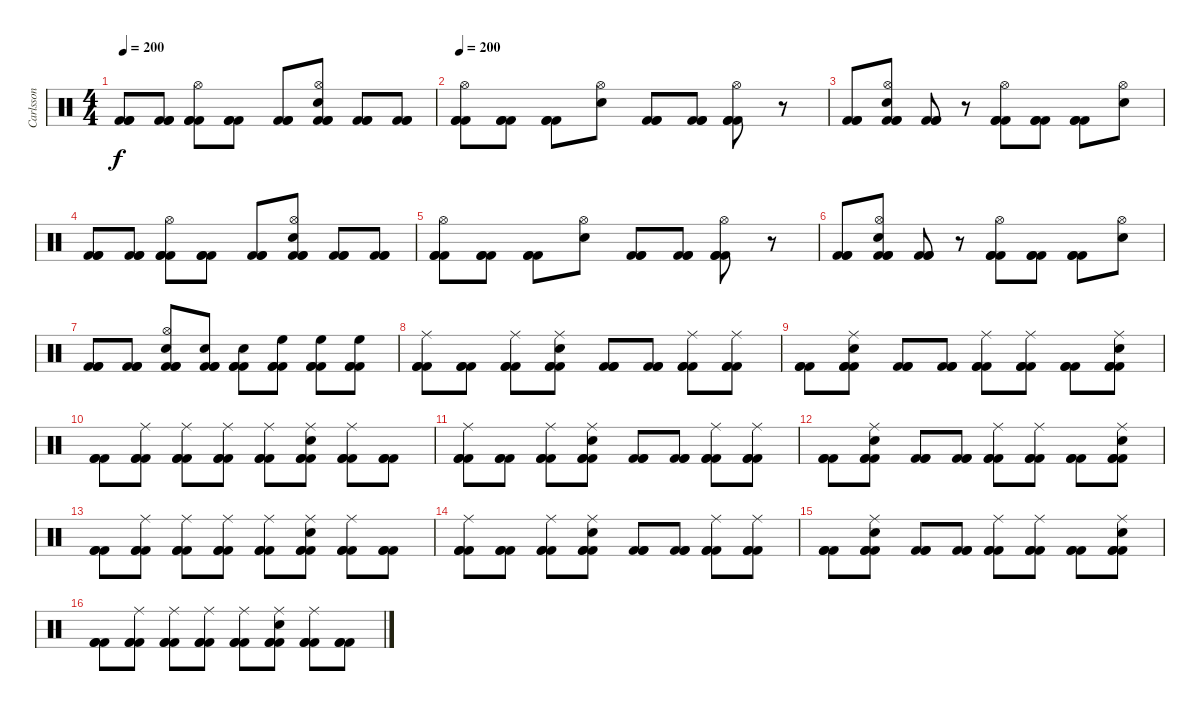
\track ("Carlsson" "Carlsson") {instrument percussion}
\staff {score}
\articulation defaults
\ts (4 4)
\tempo 200
\clef neutral
\ks c
("Kick (hit) 2" "Kick (hit) 2" "Kick (hit) 2").8{dy f} ("Kick (hit) 2" "Kick (hit) 2" "Kick (hit) 2").8 ("Hi-Hat (open)" "Kick (hit) 2" "Kick (hit) 2" "Kick (hit) 2").8 ("Kick (hit) 2" "Kick (hit) 2" "Kick (hit) 2").8 ("Kick (hit) 2" "Kick (hit) 2" "Kick (hit) 2").8 ("Hi-Hat (open)" "Snare (hit) 2" "Kick (hit) 2" "Kick (hit) 2" "Kick (hit) 2").8 ("Kick (hit) 2" "Kick (hit) 2" "Kick (hit) 2").8 ("Kick (hit) 2" "Kick (hit) 2" "Kick (hit) 2").8 |
\tempo 200
("Hi-Hat (open)" "Kick (hit) 2" "Kick (hit) 2" "Kick (hit) 2").8 ("Kick (hit) 2" "Kick (hit) 2" "Kick (hit) 2").8 ("Kick (hit) 2" "Kick (hit) 2" "Kick (hit) 2").8 ("Hi-Hat (open)" "Snare (hit) 2").8 ("Kick (hit) 2" "Kick (hit) 2" "Kick (hit) 2").8 ("Kick (hit) 2" "Kick (hit) 2" "Kick (hit) 2").8 ("Hi-Hat (open)" "Kick (hit) 2" "Kick (hit) 2" "Kick (hit) 2").8 r.8 |
("Kick (hit) 2" "Kick (hit) 2" "Kick (hit) 2").8 ("Hi-Hat (open)" "Snare (hit) 2" "Kick (hit) 2" "Kick (hit) 2" "Kick (hit) 2").8 ("Kick (hit) 2" "Kick (hit) 2" "Kick (hit) 2").8 r.8 ("Hi-Hat (open)" "Kick (hit) 2" "Kick (hit) 2" "Kick (hit) 2").8 ("Kick (hit) 2" "Kick (hit) 2" "Kick (hit) 2").8 ("Kick (hit) 2" "Kick (hit) 2" "Kick (hit) 2").8 ("Hi-Hat (open)" "Snare (hit) 2").8 |
("Kick (hit) 2" "Kick (hit) 2" "Kick (hit) 2").8 ("Kick (hit) 2" "Kick (hit) 2" "Kick (hit) 2").8 ("Hi-Hat (open)" "Kick (hit) 2" "Kick (hit) 2" "Kick (hit) 2").8 ("Kick (hit) 2" "Kick (hit) 2" "Kick (hit) 2").8 ("Kick (hit) 2" "Kick (hit) 2" "Kick (hit) 2").8 ("Hi-Hat (open)" "Snare (hit) 2" "Kick (hit) 2" "Kick (hit) 2" "Kick (hit) 2").8 ("Kick (hit) 2" "Kick (hit) 2" "Kick (hit) 2").8 ("Kick (hit) 2" "Kick (hit) 2" "Kick (hit) 2").8 |
("Hi-Hat (open)" "Kick (hit) 2" "Kick (hit) 2" "Kick (hit) 2").8 ("Kick (hit) 2" "Kick (hit) 2" "Kick (hit) 2").8 ("Kick (hit) 2" "Kick (hit) 2" "Kick (hit) 2").8 ("Hi-Hat (open)" "Snare (hit) 2").8 ("Kick (hit) 2" "Kick (hit) 2" "Kick (hit) 2").8 ("Kick (hit) 2" "Kick (hit) 2" "Kick (hit) 2").8 ("Hi-Hat (open)" "Kick (hit) 2" "Kick (hit) 2" "Kick (hit) 2").8 r.8 |
("Kick (hit) 2" "Kick (hit) 2" "Kick (hit) 2").8 ("Hi-Hat (open)" "Snare (hit) 2" "Kick (hit) 2" "Kick (hit) 2" "Kick (hit) 2").8 ("Kick (hit) 2" "Kick (hit) 2" "Kick (hit) 2").8 r.8 ("Hi-Hat (open)" "Kick (hit) 2" "Kick (hit) 2" "Kick (hit) 2").8 ("Kick (hit) 2" "Kick (hit) 2" "Kick (hit) 2").8 ("Kick (hit) 2" "Kick (hit) 2" "Kick (hit) 2").8 ("Hi-Hat (open)" "Snare (hit) 2").8 |
("Kick (hit) 2" "Kick (hit) 2" "Kick (hit) 2").8 ("Kick (hit) 2" "Kick (hit) 2" "Kick (hit) 2").8 ("Hi-Hat (open)" "Snare (hit) 2" "Kick (hit) 2" "Kick (hit) 2" "Kick (hit) 2").8 ("Snare (hit) 2" "Kick (hit) 2" "Kick (hit) 2" "Kick (hit) 2").8 ("Snare (hit) 2" "Kick (hit) 2" "Kick (hit) 2" "Kick (hit) 2").8 ("High Floor Tom (hit)" "Kick (hit) 2" "Kick (hit) 2" "Kick (hit) 2").8 ("High Floor Tom (hit)" "Kick (hit) 2" "Kick (hit) 2" "Kick (hit) 2").8 ("High Floor Tom (hit)" "Kick (hit) 2" "Kick (hit) 2" "Kick (hit) 2").8 |
("Ride (middle)" "Kick (hit) 2" "Kick (hit) 2" "Kick (hit) 2").8 ("Kick (hit) 2" "Kick (hit) 2" "Kick (hit) 2").8 ("Ride (middle)" "Kick (hit) 2" "Kick (hit) 2" "Kick (hit) 2").8 ("Ride (middle)" "Snare (hit) 2" "Kick (hit) 2" "Kick (hit) 2" "Kick (hit) 2").8 ("Kick (hit) 2" "Kick (hit) 2" "Kick (hit) 2").8 ("Kick (hit) 2" "Kick (hit) 2" "Kick (hit) 2").8 ("Ride (middle)" "Kick (hit) 2" "Kick (hit) 2" "Kick (hit) 2").8 ("Ride (middle)" "Kick (hit) 2" "Kick (hit) 2" "Kick (hit) 2").8 |
("Kick (hit) 2" "Kick (hit) 2" "Kick (hit) 2").8 ("Ride (middle)" "Snare (hit) 2" "Kick (hit) 2" "Kick (hit) 2" "Kick (hit) 2").8 ("Kick (hit) 2" "Kick (hit) 2" "Kick (hit) 2").8 ("Kick (hit) 2" "Kick (hit) 2" "Kick (hit) 2").8 ("Ride (middle)" "Kick (hit) 2" "Kick (hit) 2" "Kick (hit) 2").8 ("Ride (middle)" "Kick (hit) 2" "Kick (hit) 2" "Kick (hit) 2").8 ("Kick (hit) 2" "Kick (hit) 2" "Kick (hit) 2").8 ("Ride (middle)" "Snare (hit) 2" "Kick (hit) 2" "Kick (hit) 2" "Kick (hit) 2").8 |
("Kick (hit) 2" "Kick (hit) 2" "Kick (hit) 2").8 ("Ride (middle)" "Kick (hit) 2" "Kick (hit) 2" "Kick (hit) 2").8 ("Ride (middle)" "Kick (hit) 2" "Kick (hit) 2" "Kick (hit) 2").8 ("Ride (middle)" "Kick (hit) 2" "Kick (hit) 2" "Kick (hit) 2").8 ("Ride (middle)" "Kick (hit) 2" "Kick (hit) 2" "Kick (hit) 2").8 ("Ride (middle)" "Snare (hit) 2" "Kick (hit) 2" "Kick (hit) 2" "Kick (hit) 2").8 ("Ride (middle)" "Kick (hit) 2" "Kick (hit) 2" "Kick (hit) 2").8 ("Kick (hit) 2" "Kick (hit) 2" "Kick (hit) 2").8 |
("Ride (middle)" "Kick (hit) 2" "Kick (hit) 2" "Kick (hit) 2").8 ("Kick (hit) 2" "Kick (hit) 2" "Kick (hit) 2").8 ("Ride (middle)" "Kick (hit) 2" "Kick (hit) 2" "Kick (hit) 2").8 ("Ride (middle)" "Snare (hit) 2" "Kick (hit) 2" "Kick (hit) 2" "Kick (hit) 2").8 ("Kick (hit) 2" "Kick (hit) 2" "Kick (hit) 2").8 ("Kick (hit) 2" "Kick (hit) 2" "Kick (hit) 2").8 ("Ride (middle)" "Kick (hit) 2" "Kick (hit) 2" "Kick (hit) 2").8 ("Ride (middle)" "Kick (hit) 2" "Kick (hit) 2" "Kick (hit) 2").8 |
("Kick (hit) 2" "Kick (hit) 2" "Kick (hit) 2").8 ("Ride (middle)" "Snare (hit) 2" "Kick (hit) 2" "Kick (hit) 2" "Kick (hit) 2").8 ("Kick (hit) 2" "Kick (hit) 2" "Kick (hit) 2").8 ("Kick (hit) 2" "Kick (hit) 2" "Kick (hit) 2").8 ("Ride (middle)" "Kick (hit) 2" "Kick (hit) 2" "Kick (hit) 2").8 ("Ride (middle)" "Kick (hit) 2" "Kick (hit) 2" "Kick (hit) 2").8 ("Kick (hit) 2" "Kick (hit) 2" "Kick (hit) 2").8 ("Ride (middle)" "Snare (hit) 2" "Kick (hit) 2" "Kick (hit) 2" "Kick (hit) 2").8 |
("Kick (hit) 2" "Kick (hit) 2" "Kick (hit) 2").8 ("Ride (middle)" "Kick (hit) 2" "Kick (hit) 2" "Kick (hit) 2").8 ("Ride (middle)" "Kick (hit) 2" "Kick (hit) 2" "Kick (hit) 2").8 ("Ride (middle)" "Kick (hit) 2" "Kick (hit) 2" "Kick (hit) 2").8 ("Ride (middle)" "Kick (hit) 2" "Kick (hit) 2" "Kick (hit) 2").8 ("Ride (middle)" "Snare (hit) 2" "Kick (hit) 2" "Kick (hit) 2" "Kick (hit) 2").8 ("Ride (middle)" "Kick (hit) 2" "Kick (hit) 2" "Kick (hit) 2").8 ("Kick (hit) 2" "Kick (hit) 2" "Kick (hit) 2").8 |
("Ride (middle)" "Kick (hit) 2" "Kick (hit) 2" "Kick (hit) 2").8 ("Kick (hit) 2" "Kick (hit) 2" "Kick (hit) 2").8 ("Ride (middle)" "Kick (hit) 2" "Kick (hit) 2" "Kick (hit) 2").8 ("Ride (middle)" "Snare (hit) 2" "Kick (hit) 2" "Kick (hit) 2" "Kick (hit) 2").8 ("Kick (hit) 2" "Kick (hit) 2" "Kick (hit) 2").8 ("Kick (hit) 2" "Kick (hit) 2" "Kick (hit) 2").8 ("Ride (middle)" "Kick (hit) 2" "Kick (hit) 2" "Kick (hit) 2").8 ("Ride (middle)" "Kick (hit) 2" "Kick (hit) 2" "Kick (hit) 2").8 |
("Kick (hit) 2" "Kick (hit) 2" "Kick (hit) 2").8 ("Ride (middle)" "Snare (hit) 2" "Kick (hit) 2" "Kick (hit) 2" "Kick (hit) 2").8 ("Kick (hit) 2" "Kick (hit) 2" "Kick (hit) 2").8 ("Kick (hit) 2" "Kick (hit) 2" "Kick (hit) 2").8 ("Ride (middle)" "Kick (hit) 2" "Kick (hit) 2" "Kick (hit) 2").8 ("Ride (middle)" "Kick (hit) 2" "Kick (hit) 2" "Kick (hit) 2").8 ("Kick (hit) 2" "Kick (hit) 2" "Kick (hit) 2").8 ("Ride (middle)" "Snare (hit) 2" "Kick (hit) 2" "Kick (hit) 2" "Kick (hit) 2").8 |
("Kick (hit) 2" "Kick (hit) 2" "Kick (hit) 2").8 ("Ride (middle)" "Kick (hit) 2" "Kick (hit) 2" "Kick (hit) 2").8 ("Ride (middle)" "Kick (hit) 2" "Kick (hit) 2" "Kick (hit) 2").8 ("Ride (middle)" "Kick (hit) 2" "Kick (hit) 2" "Kick (hit) 2").8 ("Ride (middle)" "Kick (hit) 2" "Kick (hit) 2" "Kick (hit) 2").8 ("Ride (middle)" "Snare (hit) 2" "Kick (hit) 2" "Kick (hit) 2" "Kick (hit) 2").8 ("Ride (middle)" "Kick (hit) 2" "Kick (hit) 2" "Kick (hit) 2").8 ("Kick (hit) 2" "Kick (hit) 2" "Kick (hit) 2").8
